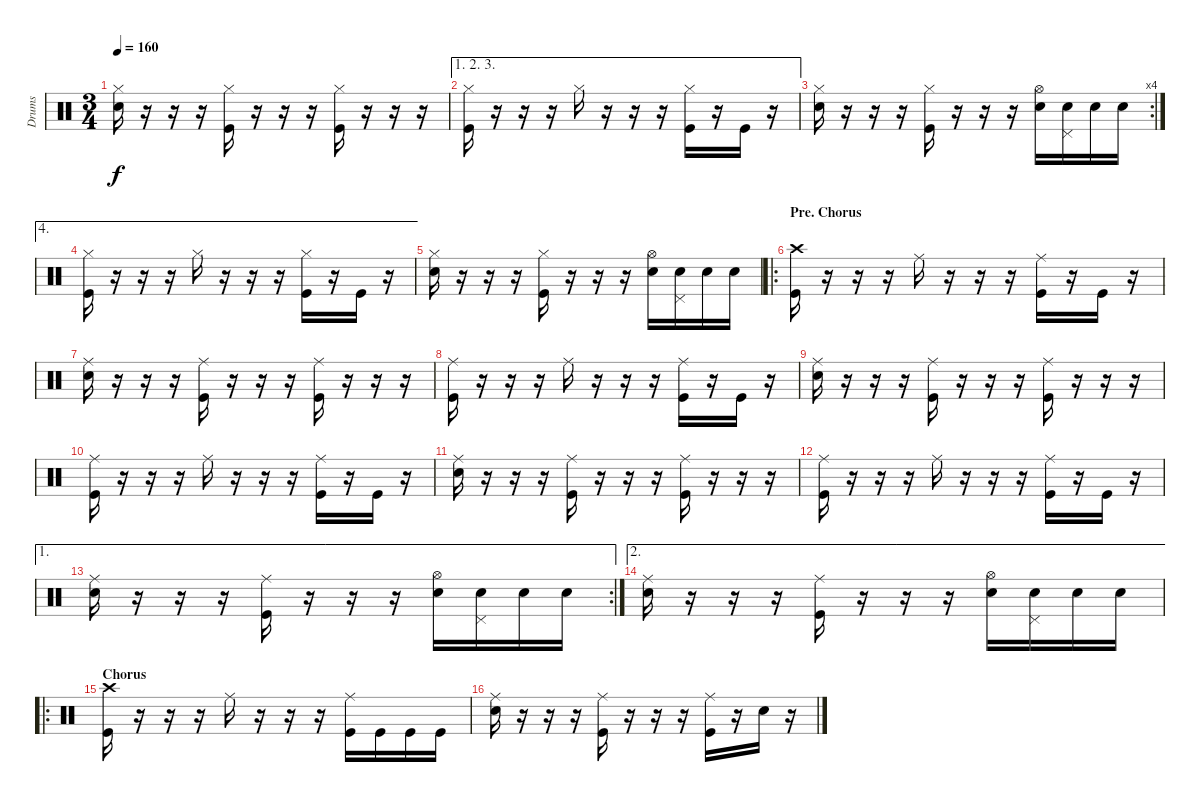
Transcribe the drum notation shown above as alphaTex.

\track ("Drums" "Drums") {instrument percussion}
\staff {score}
\articulation defaults
\ts (3 4)
\tempo 160
\clef neutral
\ks c
("Hi-Hat (closed)" "Snare (hit) 2").16{dy f} r.16 r.16 r.16 ("Hi-Hat (closed)" "Kick (hit)").16 r.16 r.16 r.16 ("Hi-Hat (closed)" "Kick (hit)").16 r.16 r.16 r.16 |
\ae (1 2 3)
("Hi-Hat (closed)" "Kick (hit)").16 r.16 r.16 r.16 "Hi-Hat (closed)".16 r.16 r.16 r.16 ("Hi-Hat (closed)" "Kick (hit)").16 r.16 "Kick (hit)".16 r.16 |
\rc 4
("Hi-Hat (closed)" "Snare (hit) 2").16 r.16 r.16 r.16 ("Hi-Hat (closed)" "Kick (hit)").16 r.16 r.16 r.16 ("Hi-Hat (open)" "Snare (hit) 2").16 ("Pedal Hi-Hat (hit)" "Snare (hit) 2").16 "Snare (hit) 2".16 "Snare (hit) 2".16 |
\ae 4
("Hi-Hat (closed)" "Kick (hit)").16 r.16 r.16 r.16 "Hi-Hat (closed)".16 r.16 r.16 r.16 ("Hi-Hat (closed)" "Kick (hit)").16 r.16 "Kick (hit)".16 r.16 |
("Hi-Hat (closed)" "Snare (hit) 2").16 r.16 r.16 r.16 ("Hi-Hat (closed)" "Kick (hit)").16 r.16 r.16 r.16 ("Hi-Hat (open)" "Snare (hit) 2").16 ("Pedal Hi-Hat (hit)" "Snare (hit) 2").16 "Snare (hit) 2".16 "Snare (hit) 2".16 |
\ro
\section ("" "Pre. Chorus")
("Crash high (hit)" "Kick (hit)").16 r.16 r.16 r.16 "Ride (middle)".16 r.16 r.16 r.16 ("Ride (middle)" "Kick (hit)").16 r.16 "Kick (hit)".16 r.16 |
("Ride (middle)" "Snare (hit) 2").16 r.16 r.16 r.16 ("Ride (middle)" "Kick (hit)").16 r.16 r.16 r.16 ("Ride (middle)" "Kick (hit)").16 r.16 r.16 r.16 |
("Ride (middle)" "Kick (hit)").16 r.16 r.16 r.16 "Ride (middle)".16 r.16 r.16 r.16 ("Ride (middle)" "Kick (hit)").16 r.16 "Kick (hit)".16 r.16 |
("Ride (middle)" "Snare (hit) 2").16 r.16 r.16 r.16 ("Ride (middle)" "Kick (hit)").16 r.16 r.16 r.16 ("Ride (middle)" "Kick (hit)").16 r.16 r.16 r.16 |
("Ride (middle)" "Kick (hit)").16 r.16 r.16 r.16 "Ride (middle)".16 r.16 r.16 r.16 ("Ride (middle)" "Kick (hit)").16 r.16 "Kick (hit)".16 r.16 |
("Ride (middle)" "Snare (hit) 2").16 r.16 r.16 r.16 ("Ride (middle)" "Kick (hit)").16 r.16 r.16 r.16 ("Ride (middle)" "Kick (hit)").16 r.16 r.16 r.16 |
("Ride (middle)" "Kick (hit)").16 r.16 r.16 r.16 "Ride (middle)".16 r.16 r.16 r.16 ("Ride (middle)" "Kick (hit)").16 r.16 "Kick (hit)".16 r.16 |
\ae 1
\rc 2
("Ride (middle)" "Snare (hit) 2").16 r.16 r.16 r.16 ("Ride (middle)" "Kick (hit)").16 r.16 r.16 r.16 ("Hi-Hat (open)" "Snare (hit) 2").16 ("Pedal Hi-Hat (hit)" "Snare (hit) 2").16 "Snare (hit) 2".16 "Snare (hit) 2".16 |
\ae 2
("Ride (middle)" "Snare (hit) 2").16 r.16 r.16 r.16 ("Ride (middle)" "Kick (hit)").16 r.16 r.16 r.16 ("Hi-Hat (open)" "Snare (hit) 2").16 ("Pedal Hi-Hat (hit)" "Snare (hit) 2").16 "Snare (hit) 2".16 "Snare (hit) 2".16 |
\ro
\section ("" "Chorus")
("Crash high (hit)" "Kick (hit)").16 r.16 r.16 r.16 "Ride (middle)".16 r.16 r.16 r.16 ("Ride (middle)" "Kick (hit)").16 "Kick (hit)".16 "Kick (hit)".16 "Kick (hit)".16 |
("Ride (middle)" "Snare (hit) 2").16 r.16 r.16 r.16 ("Ride (middle)" "Kick (hit)").16 r.16 r.16 r.16 ("Ride (middle)" "Kick (hit)").16 r.16 "Snare (hit) 2".16 r.16
